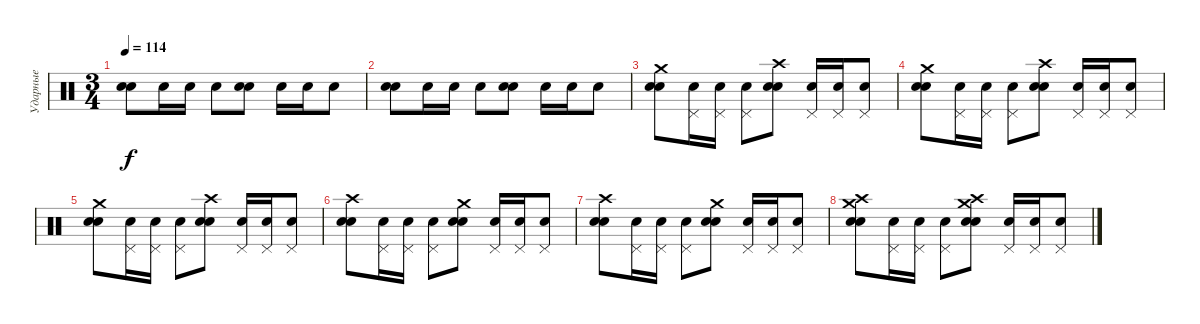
\track ("Ударные" "Ударные") {instrument percussion}
\staff {score}
\articulation defaults
\ts (3 4)
\tempo 114
\clef neutral
\ks c
("Snare (hit) 2" "Electric Snare (hit)").8{dy f} "Electric Snare (hit)".16 "Electric Snare (hit)".16 "Electric Snare (hit)".8 ("Snare (hit) 2" "Electric Snare (hit)").8 "Electric Snare (hit)".16 "Electric Snare (hit)".16 "Electric Snare (hit)".8 |
("Snare (hit) 2" "Electric Snare (hit)").8 "Electric Snare (hit)".16 "Electric Snare (hit)".16 "Electric Snare (hit)".8 ("Snare (hit) 2" "Electric Snare (hit)").8 "Electric Snare (hit)".16 "Electric Snare (hit)".16 "Electric Snare (hit)".8 |
("Crash medium (hit)" "Snare (hit) 2" "Electric Snare (hit)").8{volume 8} ("Pedal Hi-Hat (hit)" "Electric Snare (hit)").16{volume 11} ("Pedal Hi-Hat (hit)" "Electric Snare (hit)").16 ("Pedal Hi-Hat (hit)" "Electric Snare (hit)").8 ("Crash high (hit)" "Snare (hit) 2" "Electric Snare (hit)").8 ("Pedal Hi-Hat (hit)" "Electric Snare (hit)").16 ("Pedal Hi-Hat (hit)" "Electric Snare (hit)").16 ("Pedal Hi-Hat (hit)" "Electric Snare (hit)").8 |
("Crash medium (hit)" "Snare (hit) 2" "Electric Snare (hit)").8 ("Pedal Hi-Hat (hit)" "Electric Snare (hit)").16 ("Pedal Hi-Hat (hit)" "Electric Snare (hit)").16 ("Pedal Hi-Hat (hit)" "Electric Snare (hit)").8 ("Crash high (hit)" "Snare (hit) 2" "Electric Snare (hit)").8 ("Pedal Hi-Hat (hit)" "Electric Snare (hit)").16 ("Pedal Hi-Hat (hit)" "Electric Snare (hit)").16 ("Pedal Hi-Hat (hit)" "Electric Snare (hit)").8 |
("Crash medium (hit)" "Snare (hit) 2" "Electric Snare (hit)").8 ("Pedal Hi-Hat (hit)" "Electric Snare (hit)").16 ("Pedal Hi-Hat (hit)" "Electric Snare (hit)").16 ("Pedal Hi-Hat (hit)" "Electric Snare (hit)").8 ("Crash high (hit)" "Snare (hit) 2" "Electric Snare (hit)").8 ("Pedal Hi-Hat (hit)" "Electric Snare (hit)").16 ("Pedal Hi-Hat (hit)" "Electric Snare (hit)").16 ("Pedal Hi-Hat (hit)" "Electric Snare (hit)").8 |
("Crash high (hit)" "Snare (hit) 2" "Electric Snare (hit)").8 ("Pedal Hi-Hat (hit)" "Electric Snare (hit)").16 ("Pedal Hi-Hat (hit)" "Electric Snare (hit)").16 ("Pedal Hi-Hat (hit)" "Electric Snare (hit)").8 ("Crash medium (hit)" "Snare (hit) 2" "Electric Snare (hit)").8 ("Pedal Hi-Hat (hit)" "Electric Snare (hit)").16 ("Pedal Hi-Hat (hit)" "Electric Snare (hit)").16 ("Pedal Hi-Hat (hit)" "Electric Snare (hit)").8 |
("Crash high (hit)" "Snare (hit) 2" "Electric Snare (hit)").8 ("Pedal Hi-Hat (hit)" "Electric Snare (hit)").16 ("Pedal Hi-Hat (hit)" "Electric Snare (hit)").16 ("Pedal Hi-Hat (hit)" "Electric Snare (hit)").8 ("Crash medium (hit)" "Snare (hit) 2" "Electric Snare (hit)").8 ("Pedal Hi-Hat (hit)" "Electric Snare (hit)").16 ("Pedal Hi-Hat (hit)" "Electric Snare (hit)").16 ("Pedal Hi-Hat (hit)" "Electric Snare (hit)").8 |
("Crash high (hit)" "Crash medium (hit)" "Snare (hit) 2" "Electric Snare (hit)").8 ("Pedal Hi-Hat (hit)" "Electric Snare (hit)").16 ("Pedal Hi-Hat (hit)" "Electric Snare (hit)").16 ("Pedal Hi-Hat (hit)" "Electric Snare (hit)").8 ("Crash medium (hit)" "Crash high (hit)" "Snare (hit) 2" "Electric Snare (hit)").8 ("Pedal Hi-Hat (hit)" "Electric Snare (hit)").16 ("Pedal Hi-Hat (hit)" "Electric Snare (hit)").16 ("Pedal Hi-Hat (hit)" "Electric Snare (hit)").8
